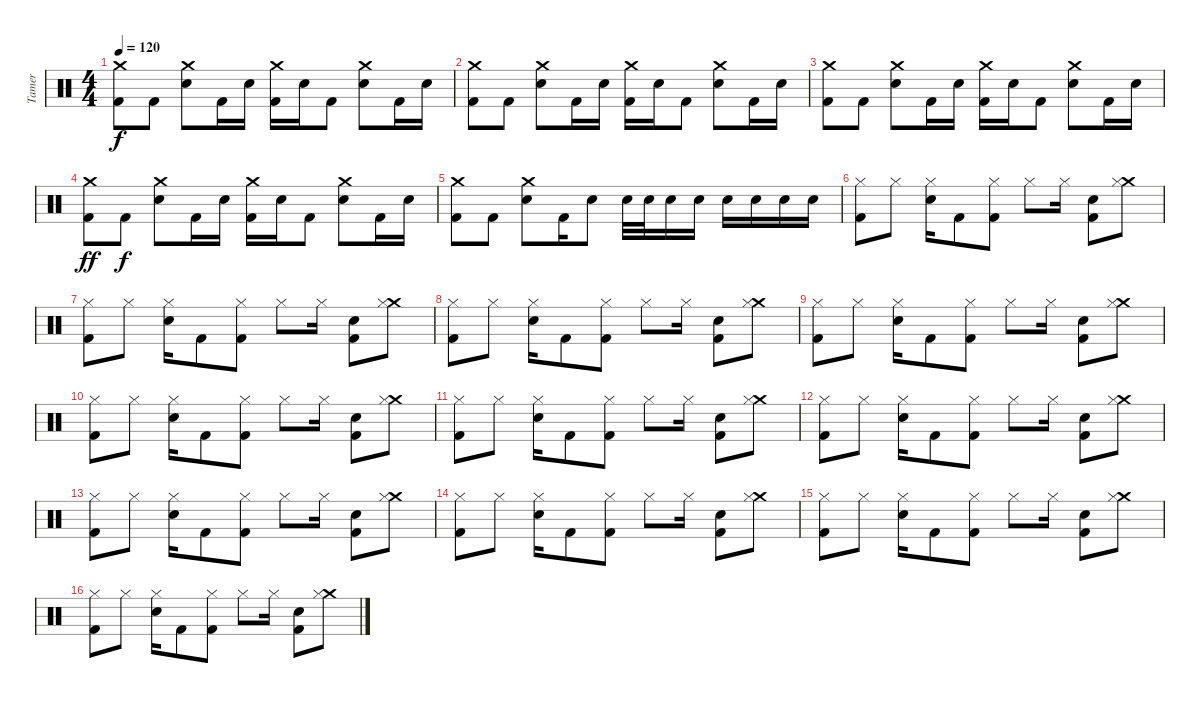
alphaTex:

\track ("Tamer" "Tamer") {instrument percussion}
\staff {score}
\articulation defaults
\ts (4 4)
\tempo 120
\clef neutral
\ks c
("Crash medium (hit)" "Kick (hit) 2").8{dy f} "Kick (hit) 2".8 ("Crash medium (hit)" "Electric Snare (hit)").8 "Kick (hit) 2".16 "Electric Snare (hit)".16 ("Crash medium (hit)" "Kick (hit) 2").16 "Electric Snare (hit)".16 "Kick (hit) 2".8 ("Crash medium (hit)" "Electric Snare (hit)").8 "Kick (hit) 2".16 "Electric Snare (hit)".16 |
("Crash medium (hit)" "Kick (hit) 2").8 "Kick (hit) 2".8 ("Crash medium (hit)" "Electric Snare (hit)").8 "Kick (hit) 2".16 "Electric Snare (hit)".16 ("Crash medium (hit)" "Kick (hit) 2").16 "Electric Snare (hit)".16 "Kick (hit) 2".8 ("Crash medium (hit)" "Electric Snare (hit)").8 "Kick (hit) 2".16 "Electric Snare (hit)".16 |
("Crash medium (hit)" "Kick (hit) 2").8 "Kick (hit) 2".8 ("Crash medium (hit)" "Electric Snare (hit)").8 "Kick (hit) 2".16 "Electric Snare (hit)".16 ("Crash medium (hit)" "Kick (hit) 2").16 "Electric Snare (hit)".16 "Kick (hit) 2".8 ("Crash medium (hit)" "Electric Snare (hit)").8 "Kick (hit) 2".16 "Electric Snare (hit)".16 |
("Crash medium (hit)" "Kick (hit) 2").8{dy ff} "Kick (hit) 2".8{dy f} ("Crash medium (hit)" "Electric Snare (hit)").8 "Kick (hit) 2".16 "Electric Snare (hit)".16 ("Crash medium (hit)" "Kick (hit) 2").16 "Electric Snare (hit)".16 "Kick (hit) 2".8 ("Crash medium (hit)" "Electric Snare (hit)").8 "Kick (hit) 2".16 "Electric Snare (hit)".16 |
("Crash medium (hit)" "Kick (hit) 2").8 "Kick (hit) 2".8 ("Crash medium (hit)" "Electric Snare (hit)").8 "Kick (hit) 2".16 "Electric Snare (hit)".8 "Electric Snare (hit)".32 "Electric Snare (hit)".32 "Electric Snare (hit)".16 "Electric Snare (hit)".16 "Electric Snare (hit)".16 "Electric Snare (hit)".16 "Electric Snare (hit)".16 "Electric Snare (hit)".16 |
("Hi-Hat (closed)" "Kick (hit) 2").8 "Hi-Hat (closed)".8 ("Electric Snare (hit)" "Hi-Hat (closed)").16 "Kick (hit) 2".8 ("Hi-Hat (closed)" "Kick (hit) 2").8 "Hi-Hat (closed)".8 "Hi-Hat (closed)".16 ("Electric Snare (hit)" "Kick (hit) 2").8 ("Crash medium (hit)" "Hi-Hat (closed)").8 |
("Hi-Hat (closed)" "Kick (hit) 2").8 "Hi-Hat (closed)".8 ("Electric Snare (hit)" "Hi-Hat (closed)").16 "Kick (hit) 2".8 ("Hi-Hat (closed)" "Kick (hit) 2").8 "Hi-Hat (closed)".8 "Hi-Hat (closed)".16 ("Electric Snare (hit)" "Kick (hit) 2").8 ("Crash medium (hit)" "Hi-Hat (closed)").8 |
("Hi-Hat (closed)" "Kick (hit) 2").8 "Hi-Hat (closed)".8 ("Electric Snare (hit)" "Hi-Hat (closed)").16 "Kick (hit) 2".8 ("Hi-Hat (closed)" "Kick (hit) 2").8 "Hi-Hat (closed)".8 "Hi-Hat (closed)".16 ("Electric Snare (hit)" "Kick (hit) 2").8 ("Crash medium (hit)" "Hi-Hat (closed)").8 |
("Hi-Hat (closed)" "Kick (hit) 2").8 "Hi-Hat (closed)".8 ("Electric Snare (hit)" "Hi-Hat (closed)").16 "Kick (hit) 2".8 ("Hi-Hat (closed)" "Kick (hit) 2").8 "Hi-Hat (closed)".8 "Hi-Hat (closed)".16 ("Electric Snare (hit)" "Kick (hit) 2").8 ("Crash medium (hit)" "Hi-Hat (closed)").8 |
("Hi-Hat (closed)" "Kick (hit) 2").8 "Hi-Hat (closed)".8 ("Electric Snare (hit)" "Hi-Hat (closed)").16 "Kick (hit) 2".8 ("Hi-Hat (closed)" "Kick (hit) 2").8 "Hi-Hat (closed)".8 "Hi-Hat (closed)".16 ("Electric Snare (hit)" "Kick (hit) 2").8 ("Crash medium (hit)" "Hi-Hat (closed)").8 |
("Hi-Hat (closed)" "Kick (hit) 2").8 "Hi-Hat (closed)".8 ("Electric Snare (hit)" "Hi-Hat (closed)").16 "Kick (hit) 2".8 ("Hi-Hat (closed)" "Kick (hit) 2").8 "Hi-Hat (closed)".8 "Hi-Hat (closed)".16 ("Electric Snare (hit)" "Kick (hit) 2").8 ("Crash medium (hit)" "Hi-Hat (closed)").8 |
("Hi-Hat (closed)" "Kick (hit) 2").8 "Hi-Hat (closed)".8 ("Electric Snare (hit)" "Hi-Hat (closed)").16 "Kick (hit) 2".8 ("Hi-Hat (closed)" "Kick (hit) 2").8 "Hi-Hat (closed)".8 "Hi-Hat (closed)".16 ("Electric Snare (hit)" "Kick (hit) 2").8 ("Crash medium (hit)" "Hi-Hat (closed)").8 |
("Hi-Hat (closed)" "Kick (hit) 2").8 "Hi-Hat (closed)".8 ("Electric Snare (hit)" "Hi-Hat (closed)").16 "Kick (hit) 2".8 ("Hi-Hat (closed)" "Kick (hit) 2").8 "Hi-Hat (closed)".8 "Hi-Hat (closed)".16 ("Electric Snare (hit)" "Kick (hit) 2").8 ("Crash medium (hit)" "Hi-Hat (closed)").8 |
("Hi-Hat (closed)" "Kick (hit) 2").8 "Hi-Hat (closed)".8 ("Electric Snare (hit)" "Hi-Hat (closed)").16 "Kick (hit) 2".8 ("Hi-Hat (closed)" "Kick (hit) 2").8 "Hi-Hat (closed)".8 "Hi-Hat (closed)".16 ("Electric Snare (hit)" "Kick (hit) 2").8 ("Crash medium (hit)" "Hi-Hat (closed)").8 |
("Hi-Hat (closed)" "Kick (hit) 2").8 "Hi-Hat (closed)".8 ("Electric Snare (hit)" "Hi-Hat (closed)").16 "Kick (hit) 2".8 ("Hi-Hat (closed)" "Kick (hit) 2").8 "Hi-Hat (closed)".8 "Hi-Hat (closed)".16 ("Electric Snare (hit)" "Kick (hit) 2").8 ("Crash medium (hit)" "Hi-Hat (closed)").8 |
("Hi-Hat (closed)" "Kick (hit) 2").8 "Hi-Hat (closed)".8 ("Electric Snare (hit)" "Hi-Hat (closed)").16 "Kick (hit) 2".8 ("Hi-Hat (closed)" "Kick (hit) 2").8 "Hi-Hat (closed)".8 "Hi-Hat (closed)".16 ("Electric Snare (hit)" "Kick (hit) 2").8 ("Crash medium (hit)" "Hi-Hat (closed)").8
